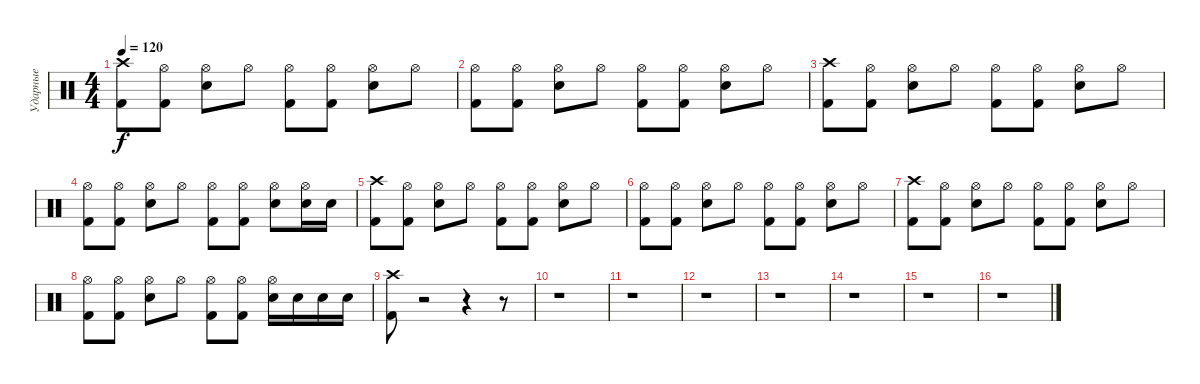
\track ("Ударные" "Ударные") {instrument percussion}
\staff {score}
\articulation defaults
\ts (4 4)
\tempo 120
\clef neutral
\ks c
("Crash high (hit)" "Kick (hit) 2").8{dy f} ("Hi-Hat (open)" "Kick (hit) 2").8 ("Hi-Hat (open)" "Electric Snare (hit)").8 "Hi-Hat (open)".8 ("Hi-Hat (open)" "Kick (hit) 2").8 ("Hi-Hat (open)" "Kick (hit) 2").8 ("Hi-Hat (open)" "Electric Snare (hit)").8 "Hi-Hat (open)".8 |
("Hi-Hat (open)" "Kick (hit) 2").8 ("Hi-Hat (open)" "Kick (hit) 2").8 ("Hi-Hat (open)" "Electric Snare (hit)").8 "Hi-Hat (open)".8 ("Hi-Hat (open)" "Kick (hit) 2").8 ("Hi-Hat (open)" "Kick (hit) 2").8 ("Hi-Hat (open)" "Electric Snare (hit)").8 "Hi-Hat (open)".8 |
("Crash high (hit)" "Kick (hit) 2").8 ("Hi-Hat (open)" "Kick (hit) 2").8 ("Hi-Hat (open)" "Electric Snare (hit)").8 "Hi-Hat (open)".8 ("Hi-Hat (open)" "Kick (hit) 2").8 ("Hi-Hat (open)" "Kick (hit) 2").8 ("Hi-Hat (open)" "Electric Snare (hit)").8 "Hi-Hat (open)".8 |
("Hi-Hat (open)" "Kick (hit) 2").8 ("Hi-Hat (open)" "Kick (hit) 2").8 ("Hi-Hat (open)" "Electric Snare (hit)").8 "Hi-Hat (open)".8 ("Hi-Hat (open)" "Kick (hit) 2").8 ("Hi-Hat (open)" "Kick (hit) 2").8 ("Hi-Hat (open)" "Electric Snare (hit)").8 ("Hi-Hat (open)" "Electric Snare (hit)").16 "Electric Snare (hit)".16 |
("Crash high (hit)" "Kick (hit) 2").8 ("Hi-Hat (open)" "Kick (hit) 2").8 ("Hi-Hat (open)" "Electric Snare (hit)").8 "Hi-Hat (open)".8 ("Hi-Hat (open)" "Kick (hit) 2").8 ("Hi-Hat (open)" "Kick (hit) 2").8 ("Hi-Hat (open)" "Electric Snare (hit)").8 "Hi-Hat (open)".8 |
("Hi-Hat (open)" "Kick (hit) 2").8 ("Hi-Hat (open)" "Kick (hit) 2").8 ("Hi-Hat (open)" "Electric Snare (hit)").8 "Hi-Hat (open)".8 ("Hi-Hat (open)" "Kick (hit) 2").8 ("Hi-Hat (open)" "Kick (hit) 2").8 ("Hi-Hat (open)" "Electric Snare (hit)").8 "Hi-Hat (open)".8 |
("Crash high (hit)" "Kick (hit) 2").8 ("Hi-Hat (open)" "Kick (hit) 2").8 ("Hi-Hat (open)" "Electric Snare (hit)").8 "Hi-Hat (open)".8 ("Hi-Hat (open)" "Kick (hit) 2").8 ("Hi-Hat (open)" "Kick (hit) 2").8 ("Hi-Hat (open)" "Electric Snare (hit)").8 "Hi-Hat (open)".8 |
("Hi-Hat (open)" "Kick (hit) 2").8 ("Hi-Hat (open)" "Kick (hit) 2").8 ("Hi-Hat (open)" "Electric Snare (hit)").8 "Hi-Hat (open)".8 ("Hi-Hat (open)" "Kick (hit) 2").8 ("Hi-Hat (open)" "Kick (hit) 2").8 ("Hi-Hat (open)" "Electric Snare (hit)").16 "Electric Snare (hit)".16 "Electric Snare (hit)".16 "Electric Snare (hit)".16 |
("Crash high (hit)" "Kick (hit) 2").8 r.2 r.4 r.8 |
r.1 |
r.1 |
r.1 |
r.1 |
r.1 |
r.1 |
r.1
